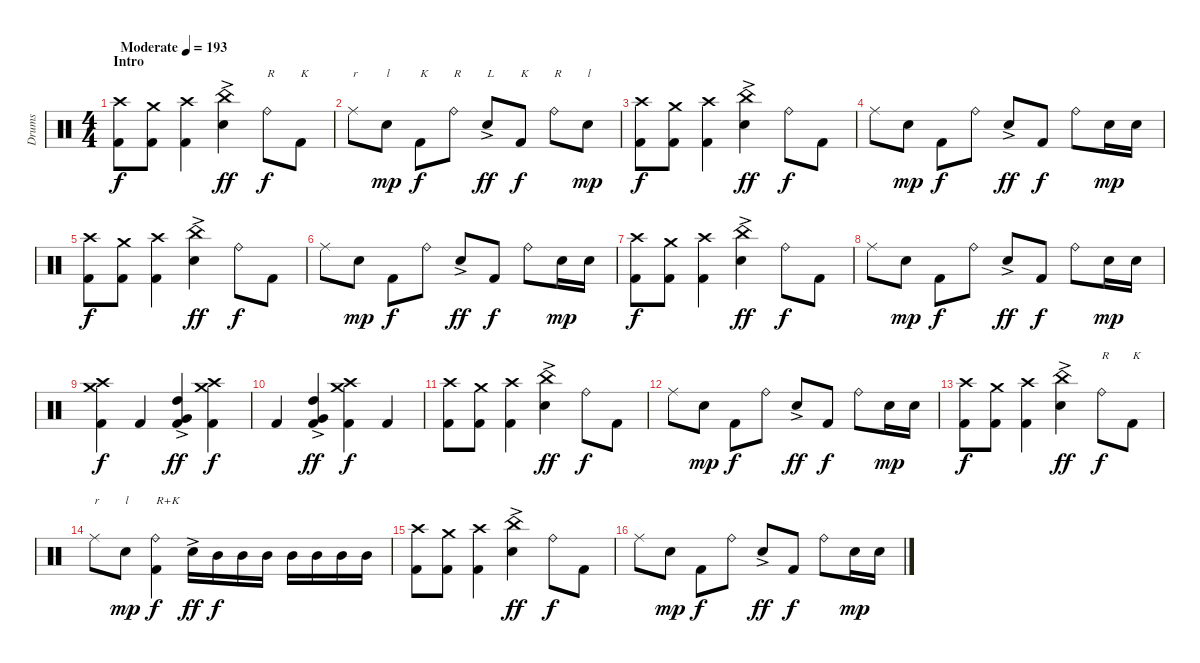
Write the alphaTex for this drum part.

\track ("Drums" "Drums") {instrument percussion}
\staff {score}
\articulation defaults
\ts (4 4)
\section ("" "Intro")
\tempo (193 "Moderate")
\clef neutral
\ks c
("Crash high (hit)" "Kick (hit) 2").8{dy f} ("Crash medium (hit)" "Kick (hit) 2").8 ("Crash high (hit)" "Kick (hit) 2").4 ("China (hit)" "Electric Snare (hit)"{ac}).4{dy ff} "Ride (bell)".8{txt "R" dy f} "Kick (hit) 2".8{txt "K"} |
"Ride (middle)".8{txt "r"} "Electric Snare (hit)".8{txt "l" dy mp} "Kick (hit) 2".8{txt "K" dy f} "Ride (bell)".8{txt "R"} "Electric Snare (hit)"{ac}.8{txt "L" dy ff} "Kick (hit) 2".8{txt "K" dy f} "Ride (bell)".8{txt "R"} "Electric Snare (hit)".8{txt "l" dy mp} |
("Crash high (hit)" "Kick (hit) 2").8{dy f} ("Crash medium (hit)" "Kick (hit) 2").8 ("Crash high (hit)" "Kick (hit) 2").4 ("China (hit)" "Electric Snare (hit)"{ac}).4{dy ff} "Ride (bell)".8{dy f} "Kick (hit) 2".8 |
"Ride (middle)".8 "Electric Snare (hit)".8{dy mp} "Kick (hit) 2".8{dy f} "Ride (bell)".8 "Electric Snare (hit)"{ac}.8{dy ff} "Kick (hit) 2".8{dy f} "Ride (bell)".8 "Electric Snare (hit)".16{dy mp} "Electric Snare (hit)".16 |
("Crash high (hit)" "Kick (hit) 2").8{dy f} ("Crash medium (hit)" "Kick (hit) 2").8 ("Crash high (hit)" "Kick (hit) 2").4 ("China (hit)" "Electric Snare (hit)"{ac}).4{dy ff} "Ride (bell)".8{dy f} "Kick (hit) 2".8 |
"Ride (middle)".8 "Electric Snare (hit)".8{dy mp} "Kick (hit) 2".8{dy f} "Ride (bell)".8 "Electric Snare (hit)"{ac}.8{dy ff} "Kick (hit) 2".8{dy f} "Ride (bell)".8 "Electric Snare (hit)".16{dy mp} "Electric Snare (hit)".16 |
("Crash high (hit)" "Kick (hit) 2").8{dy f} ("Crash medium (hit)" "Kick (hit) 2").8 ("Crash high (hit)" "Kick (hit) 2").4 ("China (hit)" "Electric Snare (hit)"{ac}).4{dy ff} "Ride (bell)".8{dy f} "Kick (hit) 2".8 |
"Ride (middle)".8 "Electric Snare (hit)".8{dy mp} "Kick (hit) 2".8{dy f} "Ride (bell)".8 "Electric Snare (hit)"{ac}.8{dy ff} "Kick (hit) 2".8{dy f} "Ride (bell)".8 "Electric Snare (hit)".16{dy mp} "Electric Snare (hit)".16 |
("Crash high (hit)" "Crash medium (hit)" "Kick (hit) 2").4{dy f} "Kick (hit) 2".4 ("High Tom (hit)"{ac} "Very Low Tom (hit)"{ac} "Kick (hit) 2").4{dy ff} ("Crash high (hit)" "Crash medium (hit)" "Kick (hit) 2").4{dy f} |
"Kick (hit) 2".4 ("High Tom (hit)"{ac} "Very Low Tom (hit)"{ac} "Kick (hit) 2").4{dy ff} ("Crash high (hit)" "Crash medium (hit)" "Kick (hit) 2").4{dy f} "Kick (hit) 2".4 |
("Crash high (hit)" "Kick (hit) 2").8 ("Crash medium (hit)" "Kick (hit) 2").8 ("Crash high (hit)" "Kick (hit) 2").4 ("China (hit)" "Electric Snare (hit)"{ac}).4{dy ff} "Ride (bell)".8{dy f} "Kick (hit) 2".8 |
"Ride (middle)".8 "Electric Snare (hit)".8{dy mp} "Kick (hit) 2".8{dy f} "Ride (bell)".8 "Electric Snare (hit)"{ac}.8{dy ff} "Kick (hit) 2".8{dy f} "Ride (bell)".8 "Electric Snare (hit)".16{dy mp} "Electric Snare (hit)".16 |
("Crash high (hit)" "Kick (hit) 2").8{dy f} ("Crash medium (hit)" "Kick (hit) 2").8 ("Crash high (hit)" "Kick (hit) 2").4 ("China (hit)" "Electric Snare (hit)"{ac}).4{dy ff} "Ride (bell)".8{txt "R" dy f} "Kick (hit) 2".8{txt "K"} |
"Ride (middle)".8{txt "r"} "Electric Snare (hit)".8{txt "l" dy mp} ("Ride (bell)" "Kick (hit) 2").4{txt "R+K" dy f} "Electric Snare (hit)"{ac}.16{dy ff} "Mid Tom (hit)".16{dy f} "Mid Tom (hit)".16 "Mid Tom (hit)".16 "Mid Tom (hit)".16 "Mid Tom (hit)".16 "Mid Tom (hit)".16 "Mid Tom (hit)".16 |
("Crash high (hit)" "Kick (hit) 2").8 ("Crash medium (hit)" "Kick (hit) 2").8 ("Crash high (hit)" "Kick (hit) 2").4 ("China (hit)" "Electric Snare (hit)"{ac}).4{dy ff} "Ride (bell)".8{dy f} "Kick (hit) 2".8 |
"Ride (middle)".8 "Electric Snare (hit)".8{dy mp} "Kick (hit) 2".8{dy f} "Ride (bell)".8 "Electric Snare (hit)"{ac}.8{dy ff} "Kick (hit) 2".8{dy f} "Ride (bell)".8 "Electric Snare (hit)".16{dy mp} "Electric Snare (hit)".16
